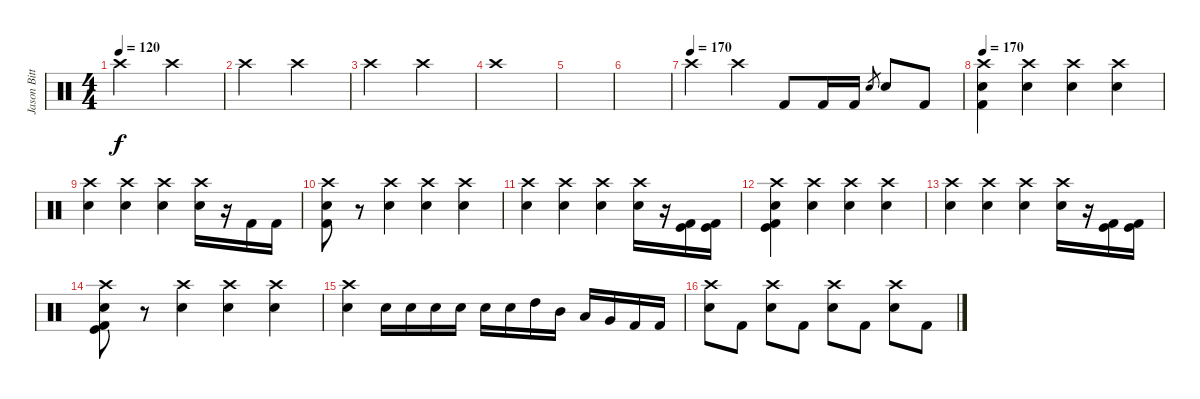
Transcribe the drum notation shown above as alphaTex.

\track ("Jason Bittner" "Jason Bitt") {instrument percussion}
\staff {score}
\articulation defaults
\ts (4 4)
\tempo 120
\clef neutral
\ks c "Crash high (hit)".2{dy f} "Crash high (hit)".2
|
"Crash high (hit)".2 "Crash high (hit)".2 |
"Crash high (hit)".2 "Crash high (hit)".2 |
"Crash high (hit)".1 |
|
|
\tempo (170)
"Crash high (hit)".4 "Crash high (hit)".4 "Kick (hit) 2".8 "Kick (hit) 2".16 "Kick (hit) 2".16 "Electric Snare (hit)".8{gr} "Electric Snare (hit)".8 "Kick (hit) 2".8 |
\tempo 170
("Crash high (hit)" "Electric Snare (hit)" "Kick (hit) 2").4 ("Crash high (hit)" "Electric Snare (hit)").4 ("Crash high (hit)" "Electric Snare (hit)").4 ("Crash high (hit)" "Electric Snare (hit)").4 |
("Crash high (hit)" "Electric Snare (hit)").4 ("Crash high (hit)" "Electric Snare (hit)").4 ("Crash high (hit)" "Electric Snare (hit)").4 ("Crash high (hit)" "Electric Snare (hit)").16 r.16 "Kick (hit) 2".16 "Kick (hit) 2".16 |
("Crash high (hit)" "Electric Snare (hit)" "Kick (hit) 2").8 r.8 ("Crash high (hit)" "Electric Snare (hit)").4 ("Crash high (hit)" "Electric Snare (hit)").4 ("Crash high (hit)" "Electric Snare (hit)").4 |
("Crash high (hit)" "Electric Snare (hit)").4 ("Crash high (hit)" "Electric Snare (hit)").4 ("Crash high (hit)" "Electric Snare (hit)").4 ("Crash high (hit)" "Electric Snare (hit)").16 r.16 ("Kick (hit)" "Kick (hit) 2").16 ("Kick (hit)" "Kick (hit) 2").16 |
("Kick (hit)" "Crash high (hit)" "Electric Snare (hit)" "Kick (hit) 2").4 ("Crash high (hit)" "Electric Snare (hit)").4 ("Crash high (hit)" "Electric Snare (hit)").4 ("Crash high (hit)" "Electric Snare (hit)").4 |
("Crash high (hit)" "Electric Snare (hit)").4 ("Crash high (hit)" "Electric Snare (hit)").4 ("Crash high (hit)" "Electric Snare (hit)").4 ("Crash high (hit)" "Electric Snare (hit)").16 r.16 ("Kick (hit)" "Kick (hit) 2").16 ("Kick (hit)" "Kick (hit) 2").16 |
("Crash high (hit)" "Electric Snare (hit)" "Kick (hit)" "Kick (hit) 2").8 r.8 ("Crash high (hit)" "Electric Snare (hit)").4 ("Crash high (hit)" "Electric Snare (hit)").4 ("Crash high (hit)" "Electric Snare (hit)").4 |
("Crash high (hit)" "Electric Snare (hit)").4 "Electric Snare (hit)".16 "Electric Snare (hit)".16 "Electric Snare (hit)".16 "Electric Snare (hit)".16 "Electric Snare (hit)".16 "Electric Snare (hit)".16 "High Tom (hit)".16 "Mid Tom (hit)".16 "Low Tom (hit)".16 "Very Low Tom (hit)".16 "Kick (hit) 2".16 "Kick (hit) 2".16 |
("Crash high (hit)" "Electric Snare (hit)").8 "Kick (hit) 2".8 ("Crash high (hit)" "Electric Snare (hit)").8 "Kick (hit) 2".8 ("Crash high (hit)" "Electric Snare (hit)").8 "Kick (hit) 2".8 ("Crash high (hit)" "Electric Snare (hit)").8 "Kick (hit) 2".8
